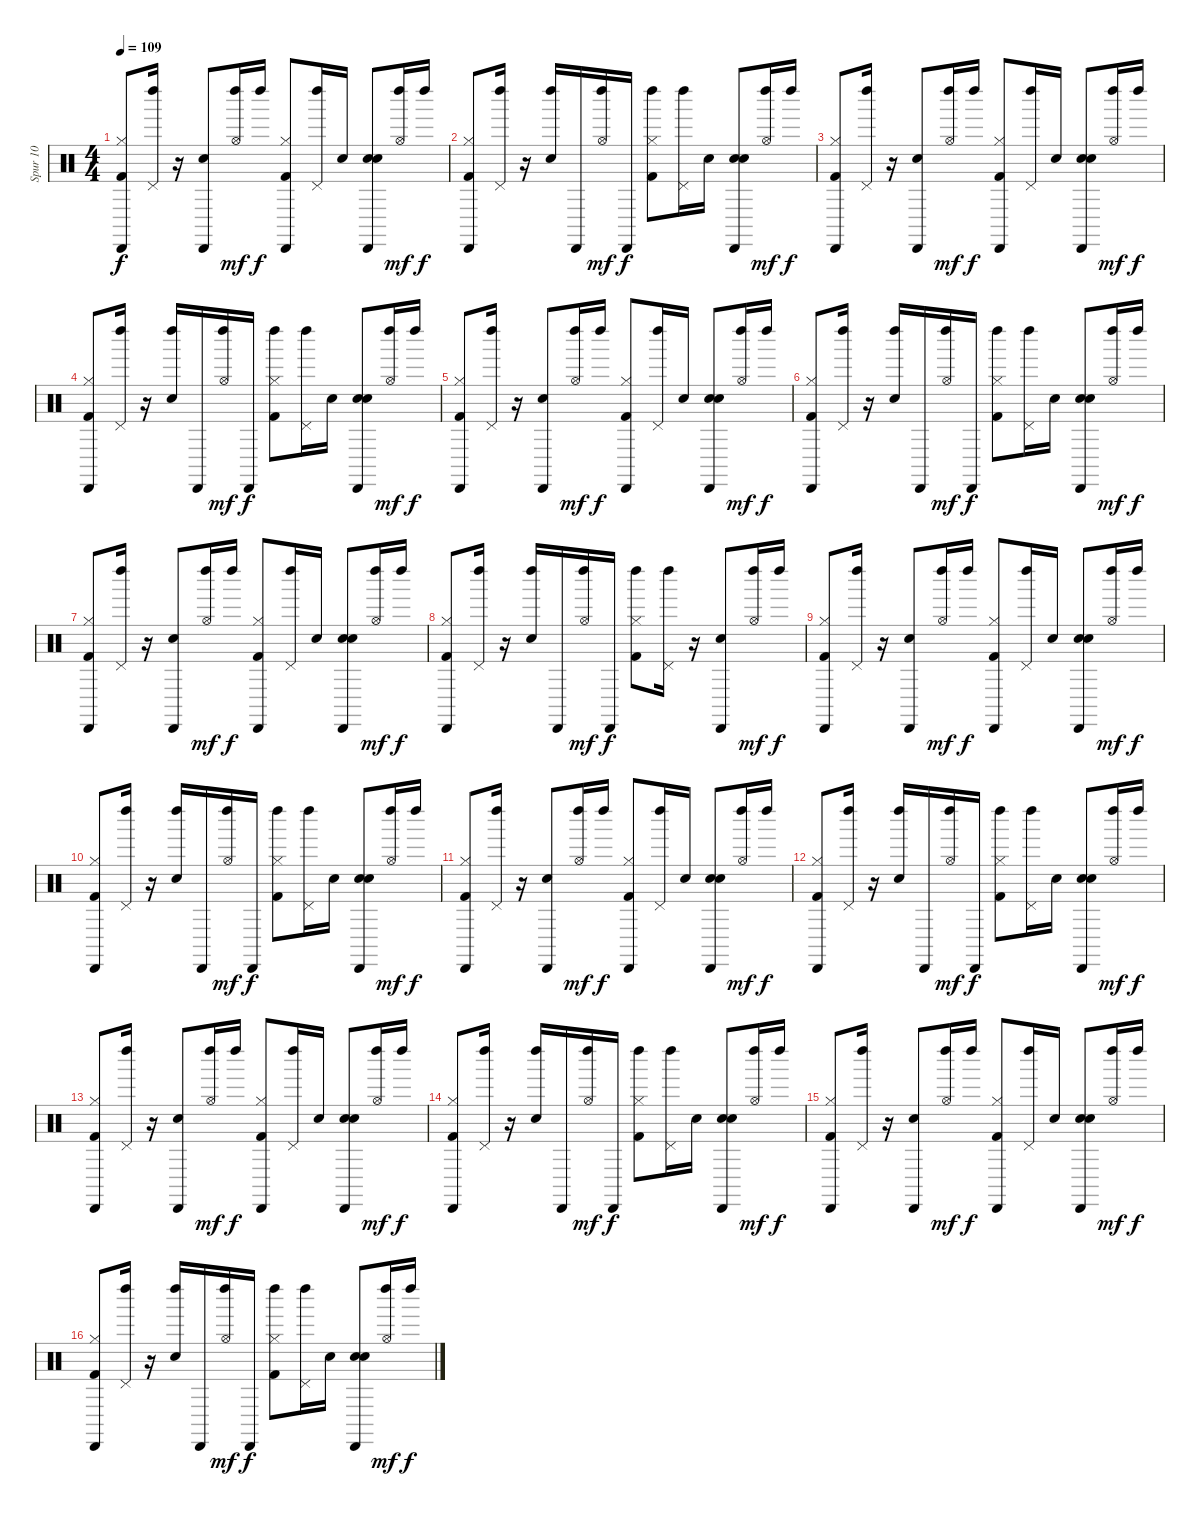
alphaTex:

\track ("Spur 10" "Spur 10") {instrument percussion}
\staff {score}
\articulation defaults
\ts (4 4)
\tempo 109
\clef neutral
\ks c
("Kick (hit) 2" "Hi-Hat (closed)" "Cabasa (hit)").8{dy f} ("Left Maraca (hit)" "Pedal Hi-Hat (hit)").16 r.16 ("Snare (hit) 2" "Cabasa (hit)").8 ("Left Maraca (hit)" "Hi-Hat (open)").16{dy mf} "Left Maraca (hit)".16{dy f} ("Kick (hit) 2" "Cabasa (hit)" "Hi-Hat (closed)").8 ("Pedal Hi-Hat (hit)" "Left Maraca (hit)").16 "Electric Snare (hit)".16 ("Snare (hit) 2" "Electric Snare (hit)" "Cabasa (hit)").8 ("Left Maraca (hit)" "Hi-Hat (open)").16{dy mf} "Left Maraca (hit)".16{dy f} |
("Kick (hit) 2" "Hi-Hat (closed)" "Cabasa (hit)").8 ("Pedal Hi-Hat (hit)" "Left Maraca (hit)").16 r.16 ("Snare (hit) 2" "Left Maraca (hit)").16 "Cabasa (hit)".16 ("Hi-Hat (open)" "Left Maraca (hit)").16{dy mf} "Cabasa (hit)".16{dy f} ("Kick (hit) 2" "Left Maraca (hit)" "Hi-Hat (closed)").8 ("Left Maraca (hit)" "Pedal Hi-Hat (hit)").16 "Electric Snare (hit)".16 ("Snare (hit) 2" "Electric Snare (hit)" "Cabasa (hit)").8 ("Left Maraca (hit)" "Hi-Hat (open)").16{dy mf} "Left Maraca (hit)".16{dy f} |
("Kick (hit) 2" "Hi-Hat (closed)" "Cabasa (hit)").8 ("Left Maraca (hit)" "Pedal Hi-Hat (hit)").16 r.16 ("Snare (hit) 2" "Cabasa (hit)").8 ("Left Maraca (hit)" "Hi-Hat (open)").16{dy mf} "Left Maraca (hit)".16{dy f} ("Kick (hit) 2" "Cabasa (hit)" "Hi-Hat (closed)").8 ("Pedal Hi-Hat (hit)" "Left Maraca (hit)").16 "Electric Snare (hit)".16 ("Electric Snare (hit)" "Snare (hit) 2" "Cabasa (hit)").8 ("Left Maraca (hit)" "Hi-Hat (open)").16{dy mf} "Left Maraca (hit)".16{dy f} |
("Kick (hit) 2" "Hi-Hat (closed)" "Cabasa (hit)").8 ("Pedal Hi-Hat (hit)" "Left Maraca (hit)").16 r.16 ("Snare (hit) 2" "Left Maraca (hit)").16 "Cabasa (hit)".16 ("Hi-Hat (open)" "Left Maraca (hit)").16{dy mf} "Cabasa (hit)".16{dy f} ("Kick (hit) 2" "Left Maraca (hit)" "Hi-Hat (closed)").8 ("Left Maraca (hit)" "Pedal Hi-Hat (hit)").16 "Electric Snare (hit)".16 ("Electric Snare (hit)" "Snare (hit) 2" "Cabasa (hit)").8 ("Left Maraca (hit)" "Hi-Hat (open)").16{dy mf} "Left Maraca (hit)".16{dy f} |
("Kick (hit) 2" "Hi-Hat (closed)" "Cabasa (hit)").8 ("Left Maraca (hit)" "Pedal Hi-Hat (hit)").16 r.16 ("Snare (hit) 2" "Cabasa (hit)").8 ("Left Maraca (hit)" "Hi-Hat (open)").16{dy mf} "Left Maraca (hit)".16{dy f} ("Kick (hit) 2" "Cabasa (hit)" "Hi-Hat (closed)").8 ("Pedal Hi-Hat (hit)" "Left Maraca (hit)").16 "Electric Snare (hit)".16 ("Electric Snare (hit)" "Snare (hit) 2" "Cabasa (hit)").8 ("Left Maraca (hit)" "Hi-Hat (open)").16{dy mf} "Left Maraca (hit)".16{dy f} |
("Kick (hit) 2" "Hi-Hat (closed)" "Cabasa (hit)").8 ("Pedal Hi-Hat (hit)" "Left Maraca (hit)").16 r.16 ("Snare (hit) 2" "Left Maraca (hit)").16 "Cabasa (hit)".16 ("Hi-Hat (open)" "Left Maraca (hit)").16{dy mf} "Cabasa (hit)".16{dy f} ("Kick (hit) 2" "Left Maraca (hit)" "Hi-Hat (closed)").8 ("Left Maraca (hit)" "Pedal Hi-Hat (hit)").16 "Electric Snare (hit)".16 ("Snare (hit) 2" "Electric Snare (hit)" "Cabasa (hit)").8 ("Left Maraca (hit)" "Hi-Hat (open)").16{dy mf} "Left Maraca (hit)".16{dy f} |
("Kick (hit) 2" "Hi-Hat (closed)" "Cabasa (hit)").8 ("Left Maraca (hit)" "Pedal Hi-Hat (hit)").16 r.16 ("Snare (hit) 2" "Cabasa (hit)").8 ("Left Maraca (hit)" "Hi-Hat (open)").16{dy mf} "Left Maraca (hit)".16{dy f} ("Kick (hit) 2" "Cabasa (hit)" "Hi-Hat (closed)").8 ("Pedal Hi-Hat (hit)" "Left Maraca (hit)").16 "Electric Snare (hit)".16 ("Electric Snare (hit)" "Snare (hit) 2" "Cabasa (hit)").8 ("Left Maraca (hit)" "Hi-Hat (open)").16{dy mf} "Left Maraca (hit)".16{dy f} |
("Kick (hit) 2" "Hi-Hat (closed)" "Cabasa (hit)").8 ("Pedal Hi-Hat (hit)" "Left Maraca (hit)").16 r.16 ("Snare (hit) 2" "Left Maraca (hit)").16 "Cabasa (hit)".16 ("Hi-Hat (open)" "Left Maraca (hit)").16{dy mf} "Cabasa (hit)".16{dy f} ("Kick (hit) 2" "Left Maraca (hit)" "Hi-Hat (closed)").8 ("Left Maraca (hit)" "Pedal Hi-Hat (hit)").16 r.16 ("Snare (hit) 2" "Cabasa (hit)").8 ("Left Maraca (hit)" "Hi-Hat (open)").16{dy mf} "Left Maraca (hit)".16{dy f} |
("Kick (hit) 2" "Hi-Hat (closed)" "Cabasa (hit)").8 ("Left Maraca (hit)" "Pedal Hi-Hat (hit)").16 r.16 ("Snare (hit) 2" "Cabasa (hit)").8 ("Left Maraca (hit)" "Hi-Hat (open)").16{dy mf} "Left Maraca (hit)".16{dy f} ("Kick (hit) 2" "Cabasa (hit)" "Hi-Hat (closed)").8 ("Pedal Hi-Hat (hit)" "Left Maraca (hit)").16 "Electric Snare (hit)".16 ("Snare (hit) 2" "Electric Snare (hit)" "Cabasa (hit)").8 ("Left Maraca (hit)" "Hi-Hat (open)").16{dy mf} "Left Maraca (hit)".16{dy f} |
("Kick (hit) 2" "Hi-Hat (closed)" "Cabasa (hit)").8 ("Pedal Hi-Hat (hit)" "Left Maraca (hit)").16 r.16 ("Snare (hit) 2" "Left Maraca (hit)").16 "Cabasa (hit)".16 ("Hi-Hat (open)" "Left Maraca (hit)").16{dy mf} "Cabasa (hit)".16{dy f} ("Kick (hit) 2" "Left Maraca (hit)" "Hi-Hat (closed)").8 ("Left Maraca (hit)" "Pedal Hi-Hat (hit)").16 "Electric Snare (hit)".16 ("Electric Snare (hit)" "Snare (hit) 2" "Cabasa (hit)").8 ("Left Maraca (hit)" "Hi-Hat (open)").16{dy mf} "Left Maraca (hit)".16{dy f} |
("Kick (hit) 2" "Hi-Hat (closed)" "Cabasa (hit)").8 ("Left Maraca (hit)" "Pedal Hi-Hat (hit)").16 r.16 ("Snare (hit) 2" "Cabasa (hit)").8 ("Left Maraca (hit)" "Hi-Hat (open)").16{dy mf} "Left Maraca (hit)".16{dy f} ("Kick (hit) 2" "Cabasa (hit)" "Hi-Hat (closed)").8 ("Pedal Hi-Hat (hit)" "Left Maraca (hit)").16 "Electric Snare (hit)".16 ("Electric Snare (hit)" "Snare (hit) 2" "Cabasa (hit)").8 ("Left Maraca (hit)" "Hi-Hat (open)").16{dy mf} "Left Maraca (hit)".16{dy f} |
("Kick (hit) 2" "Hi-Hat (closed)" "Cabasa (hit)").8 ("Pedal Hi-Hat (hit)" "Left Maraca (hit)").16 r.16 ("Snare (hit) 2" "Left Maraca (hit)").16 "Cabasa (hit)".16 ("Hi-Hat (open)" "Left Maraca (hit)").16{dy mf} "Cabasa (hit)".16{dy f} ("Kick (hit) 2" "Left Maraca (hit)" "Hi-Hat (closed)").8 ("Left Maraca (hit)" "Pedal Hi-Hat (hit)").16 "Electric Snare (hit)".16 ("Electric Snare (hit)" "Snare (hit) 2" "Cabasa (hit)").8 ("Left Maraca (hit)" "Hi-Hat (open)").16{dy mf} "Left Maraca (hit)".16{dy f} |
("Kick (hit) 2" "Hi-Hat (closed)" "Cabasa (hit)").8 ("Left Maraca (hit)" "Pedal Hi-Hat (hit)").16 r.16 ("Snare (hit) 2" "Cabasa (hit)").8 ("Left Maraca (hit)" "Hi-Hat (open)").16{dy mf} "Left Maraca (hit)".16{dy f} ("Kick (hit) 2" "Cabasa (hit)" "Hi-Hat (closed)").8 ("Pedal Hi-Hat (hit)" "Left Maraca (hit)").16 "Electric Snare (hit)".16 ("Snare (hit) 2" "Electric Snare (hit)" "Cabasa (hit)").8 ("Left Maraca (hit)" "Hi-Hat (open)").16{dy mf} "Left Maraca (hit)".16{dy f} |
("Kick (hit) 2" "Hi-Hat (closed)" "Cabasa (hit)").8 ("Pedal Hi-Hat (hit)" "Left Maraca (hit)").16 r.16 ("Snare (hit) 2" "Left Maraca (hit)").16 "Cabasa (hit)".16 ("Hi-Hat (open)" "Left Maraca (hit)").16{dy mf} "Cabasa (hit)".16{dy f} ("Kick (hit) 2" "Left Maraca (hit)" "Hi-Hat (closed)").8 ("Left Maraca (hit)" "Pedal Hi-Hat (hit)").16 "Electric Snare (hit)".16 ("Electric Snare (hit)" "Snare (hit) 2" "Cabasa (hit)").8 ("Left Maraca (hit)" "Hi-Hat (open)").16{dy mf} "Left Maraca (hit)".16{dy f} |
("Kick (hit) 2" "Hi-Hat (closed)" "Cabasa (hit)").8 ("Left Maraca (hit)" "Pedal Hi-Hat (hit)").16 r.16 ("Snare (hit) 2" "Cabasa (hit)").8 ("Left Maraca (hit)" "Hi-Hat (open)").16{dy mf} "Left Maraca (hit)".16{dy f} ("Kick (hit) 2" "Cabasa (hit)" "Hi-Hat (closed)").8 ("Pedal Hi-Hat (hit)" "Left Maraca (hit)").16 "Electric Snare (hit)".16 ("Electric Snare (hit)" "Snare (hit) 2" "Cabasa (hit)").8 ("Left Maraca (hit)" "Hi-Hat (open)").16{dy mf} "Left Maraca (hit)".16{dy f} |
("Kick (hit) 2" "Hi-Hat (closed)" "Cabasa (hit)").8 ("Pedal Hi-Hat (hit)" "Left Maraca (hit)").16 r.16 ("Snare (hit) 2" "Left Maraca (hit)").16 "Cabasa (hit)".16 ("Hi-Hat (open)" "Left Maraca (hit)").16{dy mf} "Cabasa (hit)".16{dy f} ("Kick (hit) 2" "Left Maraca (hit)" "Hi-Hat (closed)").8 ("Left Maraca (hit)" "Pedal Hi-Hat (hit)").16 "Electric Snare (hit)".16 ("Snare (hit) 2" "Electric Snare (hit)" "Cabasa (hit)").8 ("Left Maraca (hit)" "Hi-Hat (open)").16{dy mf} "Left Maraca (hit)".16{dy f}
